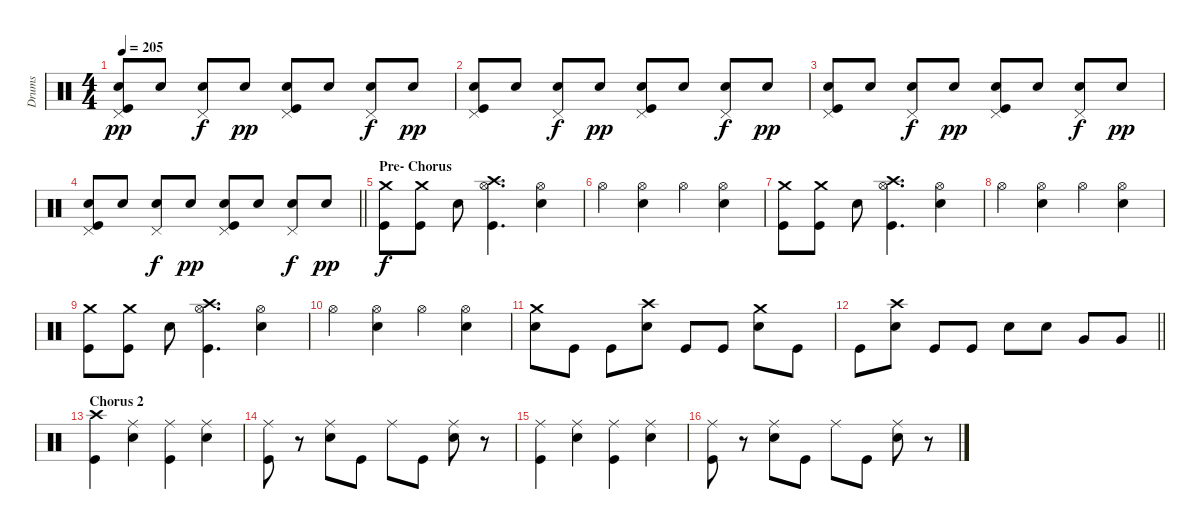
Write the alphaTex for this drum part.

\track ("Drums" "Drums") {instrument percussion}
\staff {score}
\articulation defaults
\ts (4 4)
\tempo 205
\clef neutral
\ks c
("Pedal Hi-Hat (hit)" "Electric Snare (hit)" "Kick (hit)").8{dy pp} "Electric Snare (hit)".8 ("Pedal Hi-Hat (hit)" "Electric Snare (hit)").8{dy f} "Electric Snare (hit)".8{dy pp} ("Pedal Hi-Hat (hit)" "Electric Snare (hit)" "Kick (hit)").8 "Electric Snare (hit)".8 ("Pedal Hi-Hat (hit)" "Electric Snare (hit)").8{dy f} "Electric Snare (hit)".8{dy pp} |
("Pedal Hi-Hat (hit)" "Electric Snare (hit)" "Kick (hit)").8 "Electric Snare (hit)".8 ("Pedal Hi-Hat (hit)" "Electric Snare (hit)").8{dy f} "Electric Snare (hit)".8{dy pp} ("Pedal Hi-Hat (hit)" "Electric Snare (hit)" "Kick (hit)").8 "Electric Snare (hit)".8 ("Pedal Hi-Hat (hit)" "Electric Snare (hit)").8{dy f} "Electric Snare (hit)".8{dy pp} |
("Pedal Hi-Hat (hit)" "Electric Snare (hit)" "Kick (hit)").8 "Electric Snare (hit)".8 ("Pedal Hi-Hat (hit)" "Electric Snare (hit)").8{dy f} "Electric Snare (hit)".8{dy pp} ("Pedal Hi-Hat (hit)" "Electric Snare (hit)" "Kick (hit)").8 "Electric Snare (hit)".8 ("Pedal Hi-Hat (hit)" "Electric Snare (hit)").8{dy f} "Electric Snare (hit)".8{dy pp} |
\barLineRight lightlight
("Pedal Hi-Hat (hit)" "Electric Snare (hit)" "Kick (hit)").8 "Electric Snare (hit)".8 ("Pedal Hi-Hat (hit)" "Electric Snare (hit)").8{dy f} "Electric Snare (hit)".8{dy pp} ("Pedal Hi-Hat (hit)" "Electric Snare (hit)" "Kick (hit)").8 "Electric Snare (hit)".8 ("Pedal Hi-Hat (hit)" "Electric Snare (hit)").8{dy f} "Electric Snare (hit)".8{dy pp} |
\section ("" "Pre- Chorus")
("Crash medium (hit)" "Kick (hit)").8{dy f} ("Crash medium (hit)" "Kick (hit)").8 "Electric Snare (hit)".8 ("Crash high (hit)" "Hi-Hat (open)" "Kick (hit)").4{d} ("Hi-Hat (open)" "Electric Snare (hit)").4 |
"Hi-Hat (open)".4 ("Hi-Hat (open)" "Electric Snare (hit)").4 "Hi-Hat (open)".4 ("Hi-Hat (open)" "Electric Snare (hit)").4 |
("Crash medium (hit)" "Kick (hit)").8 ("Crash medium (hit)" "Kick (hit)").8 "Electric Snare (hit)".8 ("Crash high (hit)" "Hi-Hat (open)" "Kick (hit)").4{d} ("Hi-Hat (open)" "Electric Snare (hit)").4 |
"Hi-Hat (open)".4 ("Hi-Hat (open)" "Electric Snare (hit)").4 "Hi-Hat (open)".4 ("Hi-Hat (open)" "Electric Snare (hit)").4 |
("Crash medium (hit)" "Kick (hit)").8 ("Crash medium (hit)" "Kick (hit)").8 "Electric Snare (hit)".8 ("Crash high (hit)" "Hi-Hat (open)" "Kick (hit)").4{d} ("Hi-Hat (open)" "Electric Snare (hit)").4 |
"Hi-Hat (open)".4 ("Hi-Hat (open)" "Electric Snare (hit)").4 "Hi-Hat (open)".4 ("Hi-Hat (open)" "Electric Snare (hit)").4 |
("Crash medium (hit)" "Electric Snare (hit)").8 "Kick (hit)".8 "Kick (hit)".8 ("Crash high (hit)" "Electric Snare (hit)").8 "Kick (hit)".8 "Kick (hit)".8 ("Crash medium (hit)" "Electric Snare (hit)").8 "Kick (hit)".8 |
\barLineRight lightlight "Kick (hit)".8
("Crash high (hit)" "Electric Snare (hit)").8 "Kick (hit)".8 "Kick (hit)".8 "Electric Snare (hit)".8 "Electric Snare (hit)".8 "Very Low Tom (hit)".8 "Very Low Tom (hit)".8 |
\section ("" "Chorus 2")
("Crash high (hit)" "Kick (hit)").4 ("Ride (middle)" "Electric Snare (hit)").4 ("Ride (middle)" "Kick (hit)").4 ("Ride (middle)" "Electric Snare (hit)").4 |
("Ride (middle)" "Kick (hit)").8 r.8 ("Ride (middle)" "Electric Snare (hit)").8 "Kick (hit)".8 "Ride (middle)".8 "Kick (hit)".8 ("Ride (middle)" "Electric Snare (hit)").8 r.8 |
("Ride (middle)" "Kick (hit)").4 ("Ride (middle)" "Electric Snare (hit)").4 ("Ride (middle)" "Kick (hit)").4 ("Ride (middle)" "Electric Snare (hit)").4 |
("Ride (middle)" "Kick (hit)").8 r.8 ("Ride (middle)" "Electric Snare (hit)").8 "Kick (hit)".8 "Ride (middle)".8 "Kick (hit)".8 ("Ride (middle)" "Electric Snare (hit)").8 r.8
